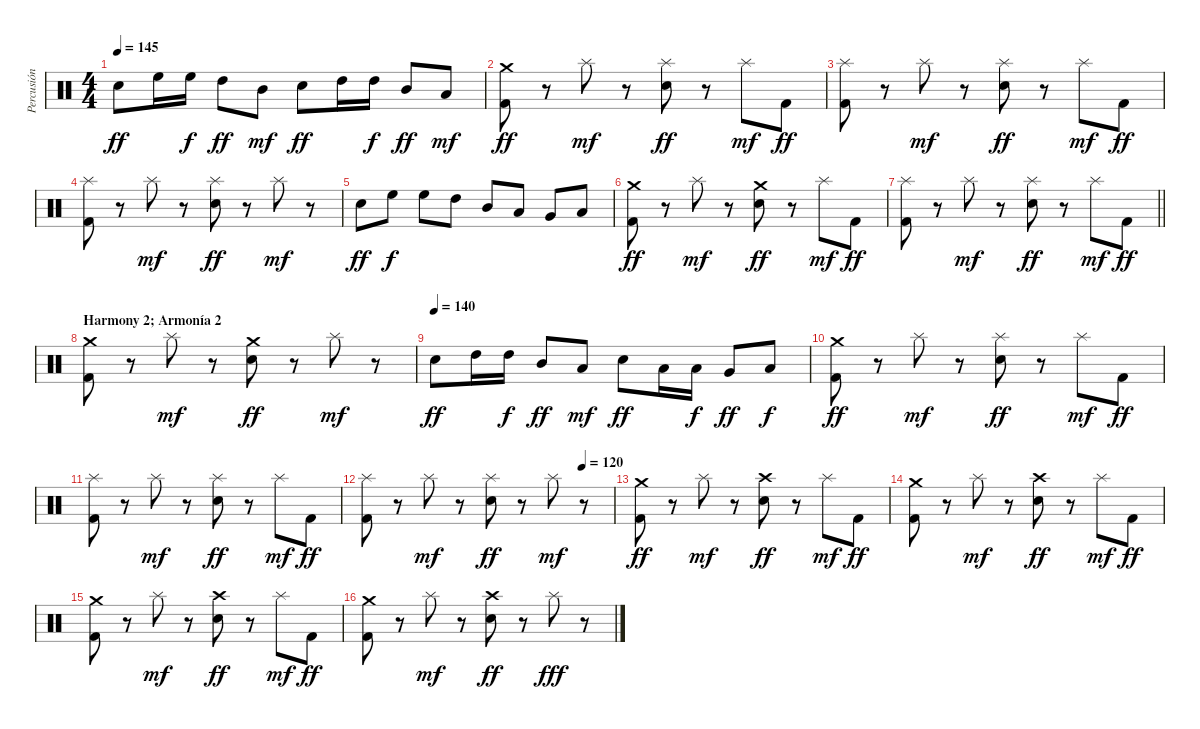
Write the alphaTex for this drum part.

\track ("Percusión" "Percusión") {instrument percussion}
\staff {score}
\articulation defaults
\ts (4 4)
\tempo 145
\clef neutral
\ks c "Electric Snare (hit)".8{dy ff} "High Floor Tom (hit)".16 "High Floor Tom (hit)".16{dy f} "High Tom (hit)".8{dy ff} "Mid Tom (hit)".8{dy mf} "Electric Snare (hit)".8{dy ff} "High Tom (hit)".16 "High Tom (hit)".16{dy f} "Mid Tom (hit)".8{dy ff} "Low Tom (hit)".8{dy mf}
|
("Crash medium (hit)" "Kick (hit) 2").8{dy ff} r.8 "Splash (hit)".8{dy mf} r.8 ("Splash (hit)" "Electric Snare (hit)").8{dy ff} r.8 "Splash (hit)".8{dy mf} "Kick (hit) 2".8{dy ff} |
("Splash (hit)" "Kick (hit) 2").8 r.8 "Splash (hit)".8{dy mf} r.8 ("Splash (hit)" "Electric Snare (hit)").8{dy ff} r.8 "Splash (hit)".8{dy mf} "Kick (hit) 2".8{dy ff} |
("Splash (hit)" "Kick (hit) 2").8 r.8 "Splash (hit)".8{dy mf} r.8 ("Splash (hit)" "Electric Snare (hit)").8{dy ff} r.8 "Splash (hit)".8{dy mf} r.8 |
"Electric Snare (hit)".8{dy ff} "High Floor Tom (hit)".8{dy f} "High Floor Tom (hit)".8 "High Tom (hit)".8 "Mid Tom (hit)".8 "Low Tom (hit)".8 "Very Low Tom (hit)".8 "Low Floor Tom (hit)".8 |
("Crash medium (hit)" "Kick (hit) 2").8{dy ff} r.8 "Splash (hit)".8{dy mf} r.8 ("Crash medium (hit)" "Electric Snare (hit)").8{dy ff} r.8 "Splash (hit)".8{dy mf} "Kick (hit) 2".8{dy ff} |
\barLineRight lightlight
("Splash (hit)" "Kick (hit) 2").8 r.8 "Splash (hit)".8{dy mf} r.8 ("Splash (hit)" "Electric Snare (hit)").8{dy ff} r.8 "Splash (hit)".8{dy mf} "Kick (hit) 2".8{dy ff} |
\section ("" "Harmony 2; Armonía 2")
("Crash medium (hit)" "Kick (hit) 2").8 r.8 "Splash (hit)".8{dy mf} r.8 ("Crash medium (hit)" "Electric Snare (hit)").8{dy ff} r.8 "Splash (hit)".8{dy mf} r.8 |
\tempo (140)
"Electric Snare (hit)".8{dy ff} "High Tom (hit)".16 "High Tom (hit)".16{dy f} "Mid Tom (hit)".8{dy ff} "Low Tom (hit)".8{dy mf} "Electric Snare (hit)".8{dy ff} "Low Tom (hit)".16 "Low Tom (hit)".16{dy f} "Very Low Tom (hit)".8{dy ff} "Low Floor Tom (hit)".8{dy f} |
("Crash medium (hit)" "Kick (hit) 2").8{dy ff} r.8 "Splash (hit)".8{dy mf} r.8 ("Splash (hit)" "Electric Snare (hit)").8{dy ff} r.8 "Splash (hit)".8{dy mf} "Kick (hit) 2".8{dy ff} |
("Splash (hit)" "Kick (hit) 2").8 r.8 "Splash (hit)".8{dy mf} r.8 ("Splash (hit)" "Electric Snare (hit)").8{dy ff} r.8 "Splash (hit)".8{dy mf} "Kick (hit) 2".8{dy ff} |
\tempo (120 0.875)
("Splash (hit)" "Kick (hit) 2").8 r.8 "Splash (hit)".8{dy mf} r.8 ("Splash (hit)" "Electric Snare (hit)").8{dy ff} r.8 "Splash (hit)".8{dy mf} r.8 |
("Crash medium (hit)" "Kick (hit) 2").8{dy ff} r.8 "Splash (hit)".8{dy mf} r.8 ("Crash high (hit)" "Electric Snare (hit)").8{dy ff} r.8 "Splash (hit)".8{dy mf} "Kick (hit) 2".8{dy ff} |
("Crash medium (hit)" "Kick (hit) 2").8 r.8 "Splash (hit)".8{dy mf} r.8 ("Crash high (hit)" "Electric Snare (hit)").8{dy ff} r.8 "Splash (hit)".8{dy mf} "Kick (hit) 2".8{dy ff} |
("Crash medium (hit)" "Kick (hit) 2").8 r.8 "Splash (hit)".8{dy mf} r.8 ("Crash high (hit)" "Electric Snare (hit)").8{dy ff} r.8 "Splash (hit)".8{dy mf} "Kick (hit) 2".8{dy ff} |
("Crash medium (hit)" "Kick (hit) 2").8 r.8 "Splash (hit)".8{dy mf} r.8 ("Crash high (hit)" "Electric Snare (hit)").8{dy ff} r.8 "Splash (hit)".8{dy fff} r.8
